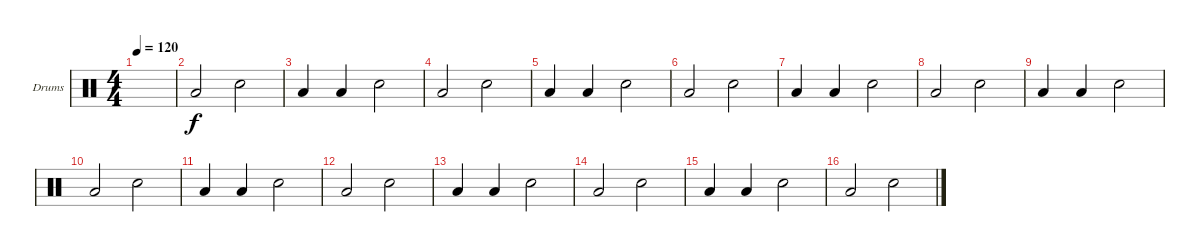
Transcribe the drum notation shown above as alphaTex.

\defaultSystemsLayout 4
\bracketExtendMode groupsimilarinstruments
\firstSystemTrackNameOrientation horizontal
\otherSystemsTrackNameOrientation horizontal
\track ("Drumkit" "Drums") {instrument percussion}
\staff {score}
\articulation defaults
\ts (4 4)
\tempo 120
\clef neutral
\ks c
|
"Low Tom (hit)".2 "Snare (hit) 2".2 |
"Low Tom (hit)".4 "Low Tom (hit)".4 "Snare (hit) 2".2 |
"Low Tom (hit)".2 "Snare (hit) 2".2 |
"Low Tom (hit)".4 "Low Tom (hit)".4 "Snare (hit) 2".2 |
"Low Tom (hit)".2 "Snare (hit) 2".2 |
"Low Tom (hit)".4 "Low Tom (hit)".4 "Snare (hit) 2".2 |
"Low Tom (hit)".2 "Snare (hit) 2".2 |
"Low Tom (hit)".4 "Low Tom (hit)".4 "Snare (hit) 2".2 |
"Low Tom (hit)".2 "Snare (hit) 2".2 |
"Low Tom (hit)".4 "Low Tom (hit)".4 "Snare (hit) 2".2 |
"Low Tom (hit)".2 "Snare (hit) 2".2 |
"Low Tom (hit)".4 "Low Tom (hit)".4 "Snare (hit) 2".2 |
"Low Tom (hit)".2 "Snare (hit) 2".2 |
"Low Tom (hit)".4 "Low Tom (hit)".4 "Snare (hit) 2".2 |
"Low Tom (hit)".2 "Snare (hit) 2".2
